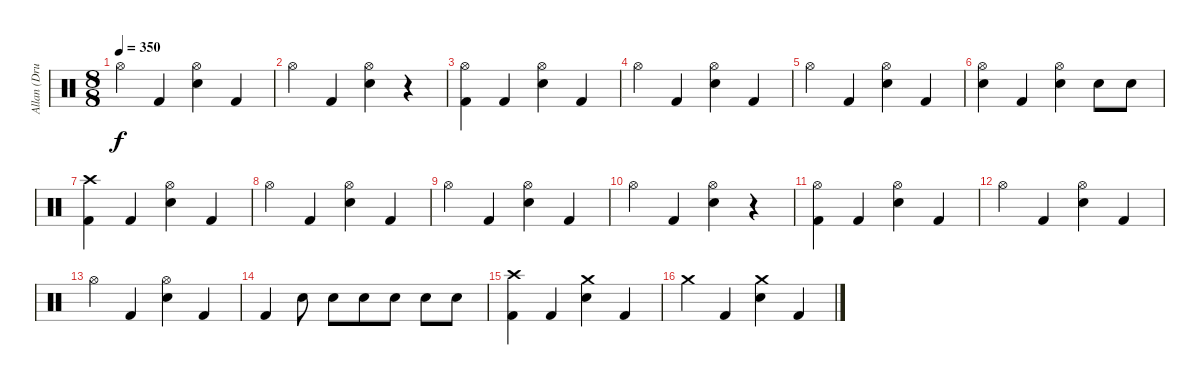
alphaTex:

\track ("Allan (Drums)" "Allan (Dru") {solo instrument percussion}
\staff {score}
\articulation defaults
\ts (8 8)
\tempo 350
\clef neutral
\ks c "Hi-Hat (open)".4{dy f} "Kick (hit) 2".4
("Hi-Hat (open)" "Snare (hit) 2").4 "Kick (hit) 2".4 |
"Hi-Hat (open)".4 "Kick (hit) 2".4 ("Hi-Hat (open)" "Snare (hit) 2").4 r.4 |
("Hi-Hat (open)" "Kick (hit) 2").4 "Kick (hit) 2".4 ("Hi-Hat (open)" "Snare (hit) 2").4 "Kick (hit) 2".4 |
"Hi-Hat (open)".4 "Kick (hit) 2".4 ("Hi-Hat (open)" "Snare (hit) 2").4 "Kick (hit) 2".4 |
"Hi-Hat (open)".4 "Kick (hit) 2".4 ("Hi-Hat (open)" "Snare (hit) 2").4 "Kick (hit) 2".4 |
("Hi-Hat (open)" "Snare (hit) 2").4 "Kick (hit) 2".4 ("Hi-Hat (open)" "Snare (hit) 2").4 "Snare (hit) 2".8 "Snare (hit) 2".8 |
("Crash high (hit)" "Kick (hit) 2").4 "Kick (hit) 2".4 ("Hi-Hat (open)" "Snare (hit) 2").4 "Kick (hit) 2".4 |
"Hi-Hat (open)".4 "Kick (hit) 2".4 ("Hi-Hat (open)" "Snare (hit) 2").4 "Kick (hit) 2".4 |
"Hi-Hat (open)".4 "Kick (hit) 2".4 ("Hi-Hat (open)" "Snare (hit) 2").4 "Kick (hit) 2".4 |
"Hi-Hat (open)".4 "Kick (hit) 2".4 ("Hi-Hat (open)" "Snare (hit) 2").4 r.4 |
("Hi-Hat (open)" "Kick (hit) 2").4 "Kick (hit) 2".4 ("Hi-Hat (open)" "Snare (hit) 2").4 "Kick (hit) 2".4 |
"Hi-Hat (open)".4 "Kick (hit) 2".4 ("Hi-Hat (open)" "Snare (hit) 2").4 "Kick (hit) 2".4 |
"Hi-Hat (open)".4 "Kick (hit) 2".4 ("Hi-Hat (open)" "Snare (hit) 2").4 "Kick (hit) 2".4 |
"Kick (hit) 2".4 "Snare (hit) 2".8 "Snare (hit) 2".8 "Snare (hit) 2".8 "Snare (hit) 2".8 "Snare (hit) 2".8 "Snare (hit) 2".8 |
("Crash high (hit)" "Kick (hit) 2").4 "Kick (hit) 2".4 ("Crash medium (hit)" "Snare (hit) 2").4 "Kick (hit) 2".4 |
"Crash medium (hit)".4 "Kick (hit) 2".4 ("Crash medium (hit)" "Snare (hit) 2").4 "Kick (hit) 2".4
